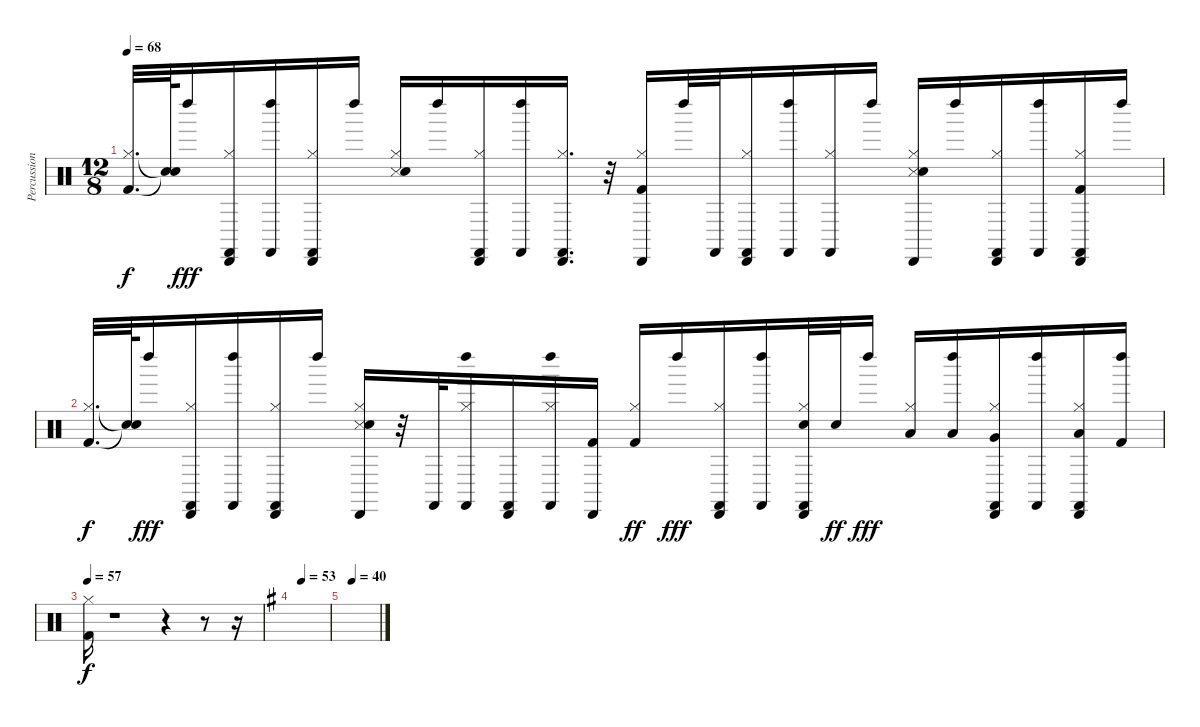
\track ("Percussion" "Percussion") {instrument percussion}
\staff {score}
\articulation defaults
\ts (12 8)
\tempo 68
\clef neutral
\ks c
("Kick (hit) 2" "Hi-Hat (closed)").32{d dy f} ("Snare (hit)"{t} "Snare (hit)"{t}).64 "Left Maraca (hit)".16{dy fff} ("Hi-Hat (closed)" "Cabasa (hit)" "Castanets (hit)").16 ("Left Maraca (hit)" "Castanets (hit)").16 ("Hi-Hat (closed)" "Cabasa (hit)" "Castanets (hit)").16 "Left Maraca (hit)".16 ("Snare (side stick) 3" "Hi-Hat (closed)" "Snare (hit) 2").16 "Left Maraca (hit)".16 ("Hi-Hat (closed)" "Cabasa (hit)" "Castanets (hit)").16 ("Left Maraca (hit)" "Castanets (hit)").16 ("Hi-Hat (closed)" "Cabasa (hit)" "Castanets (hit)").16{d} r.32 ("Kick (hit) 2" "Hi-Hat (closed)" "Cabasa (hit)").16 "Left Maraca (hit)".32 "Castanets (hit)".32 ("Hi-Hat (closed)" "Cabasa (hit)" "Castanets (hit)").16 ("Left Maraca (hit)" "Castanets (hit)").16 ("Hi-Hat (closed)" "Castanets (hit)").16 "Left Maraca (hit)".16 ("Snare (side stick) 3" "Hi-Hat (closed)" "Cabasa (hit)" "Snare (hit) 2").16 "Left Maraca (hit)".16 ("Hi-Hat (closed)" "Cabasa (hit)" "Castanets (hit)").16 ("Left Maraca (hit)" "Castanets (hit)").16 ("Kick (hit) 2" "Hi-Hat (closed)" "Cabasa (hit)" "Castanets (hit)").16 "Left Maraca (hit)".16 |
("Kick (hit) 2" "Hi-Hat (closed)").32{d dy f} ("Snare (hit)"{t} "Snare (hit)"{t}).64 "Left Maraca (hit)".16{dy fff} ("Hi-Hat (closed)" "Cabasa (hit)" "Castanets (hit)").16 ("Left Maraca (hit)" "Castanets (hit)").16 ("Hi-Hat (closed)" "Cabasa (hit)" "Castanets (hit)").16 "Left Maraca (hit)".16 ("Snare (side stick) 3" "Hi-Hat (closed)" "Cabasa (hit)" "Snare (hit) 2").16 r.32 "Castanets (hit)".32 ("Hi-Hat (closed)" "Left Maraca (hit)" "Castanets (hit)").16 ("Cabasa (hit)" "Castanets (hit)").16 ("Hi-Hat (closed)" "Left Maraca (hit)" "Castanets (hit)").16 ("Kick (hit) 2" "Cabasa (hit)").16 ("Hi-Hat (closed)" "Kick (hit) 2").16{dy ff} "Left Maraca (hit)".16{dy fff} ("Hi-Hat (closed)" "Cabasa (hit)" "Castanets (hit)").16 ("Left Maraca (hit)" "Castanets (hit)").16 ("Hi-Hat (closed)" "Snare (hit) 2" "Cabasa (hit)" "Castanets (hit)").32 "Snare (hit) 2".32{dy ff} "Left Maraca (hit)".16{dy fff} ("Hi-Hat (closed)" "Low Tom (hit)").16 ("Low Tom (hit)" "Left Maraca (hit)").16 ("Hi-Hat (closed)" "Very Low Tom (hit)" "Cabasa (hit)" "Castanets (hit)").16 ("Left Maraca (hit)" "Castanets (hit)").16 ("Hi-Hat (closed)" "Low Floor Tom (hit)" "Cabasa (hit)" "Castanets (hit)").16 ("Kick (hit) 2" "Left Maraca (hit)").16 |
\tempo 57
("Kick (hit) 2" "Hi-Hat (closed)").16{dy f} r.1 r.4 r.8 r.16 |
\tempo (53 0.25)
\ks g
|
\tempo (40 0.25)
